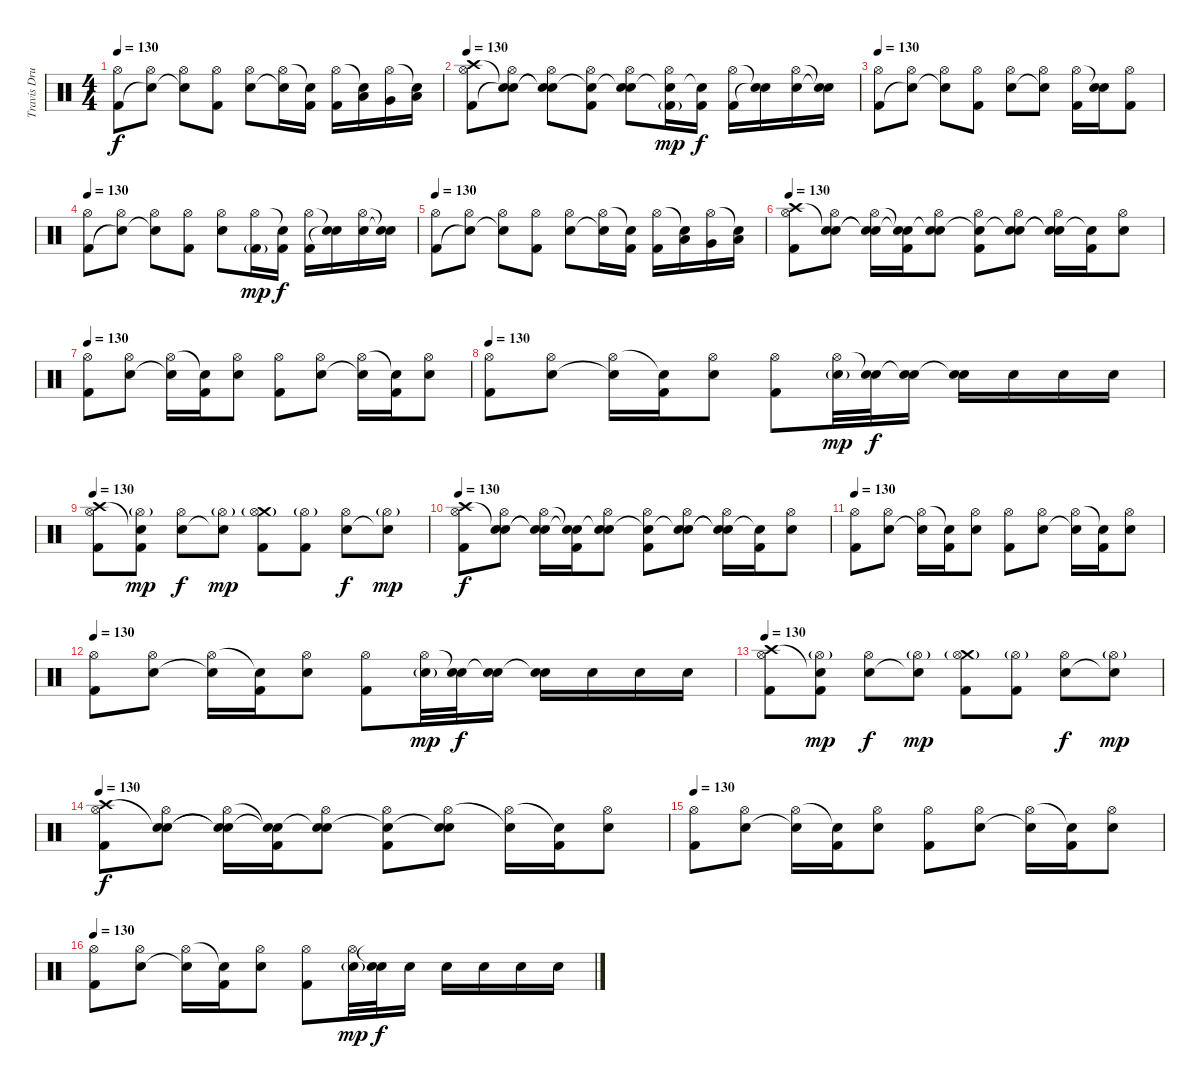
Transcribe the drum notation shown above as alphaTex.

\track ("Travis Drums" "Travis Dru") {instrument percussion}
\staff {score}
\articulation defaults
\ts (4 4)
\tempo 130
\clef neutral
\ks c
("Hi-Hat (open)" "Kick (hit) 2").8{dy f} ("Hi-Hat (open)" "Snare (hit)"{t}).8 ("Hi-Hat (open)" "Snare (hit)"{t}).8 ("Hi-Hat (open)" "Kick (hit) 2").8 ("Hi-Hat (open)" "Electric Snare (hit)").8 ("Hi-Hat (open)" "Snare (hit)"{t}).16 ("Snare (hit)"{t} "Kick (hit) 2").16 ("Hi-Hat (open)" "Kick (hit) 2").16 ("Snare (hit)"{t} "Low Tom (hit)").16 ("Hi-Hat (open)" "Very Low Tom (hit)").16 ("Snare (hit)"{t} "Low Floor Tom (hit)").16 |
\tempo 130
("Crash high (hit)" "Hi-Hat (open)" "Kick (hit) 2").8 ("Snare (hit)"{t} "Hi-Hat (open)" "Snare (hit)"{t}).8 ("Snare (hit)"{t} "Hi-Hat (open)" "Snare (hit)"{t}).8 ("Snare (hit)"{t} "Hi-Hat (open)" "Kick (hit) 2").8 ("Snare (hit)"{t} "Hi-Hat (open)" "Electric Snare (hit)").8 ("Snare (hit)"{t} "Hi-Hat (open)" "Kick (hit) 2"{g}).16{dy mp} ("Snare (hit)"{t} "Kick (hit) 2").16{dy f} ("Hi-Hat (open)" "Kick (hit) 2").16 ("Snare (hit)"{t} "Snare (hit)"{t}).16 ("Hi-Hat (open)" "Electric Snare (hit)").16 ("Snare (hit)"{t} "Snare (hit)"{t}).16 |
\tempo 130
("Hi-Hat (open)" "Kick (hit) 2").8 ("Hi-Hat (open)" "Snare (hit)"{t}).8 ("Hi-Hat (open)" "Snare (hit)"{t}).8 ("Hi-Hat (open)" "Kick (hit) 2").8 ("Hi-Hat (open)" "Electric Snare (hit)").8 ("Hi-Hat (open)" "Snare (hit)"{t}).8 ("Hi-Hat (open)" "Kick (hit) 2").16 ("Snare (hit)"{t} "Electric Snare (hit)").16 ("Hi-Hat (open)" "Kick (hit) 2").8 |
\tempo 130
("Hi-Hat (open)" "Kick (hit) 2").8 ("Hi-Hat (open)" "Snare (hit)"{t}).8 ("Hi-Hat (open)" "Snare (hit)"{t}).8 ("Hi-Hat (open)" "Kick (hit) 2").8 ("Hi-Hat (open)" "Electric Snare (hit)").8 ("Hi-Hat (open)" "Kick (hit) 2"{g}).16{dy mp} ("Snare (hit)"{t} "Kick (hit) 2").16{dy f} ("Hi-Hat (open)" "Kick (hit) 2").16 ("Snare (hit)"{t} "Snare (hit)"{t}).16 ("Hi-Hat (open)" "Electric Snare (hit)").16 ("Snare (hit)"{t} "Snare (hit)"{t}).16 |
\tempo 130
("Hi-Hat (open)" "Kick (hit) 2").8 ("Hi-Hat (open)" "Snare (hit)"{t}).8 ("Hi-Hat (open)" "Snare (hit)"{t}).8 ("Hi-Hat (open)" "Kick (hit) 2").8 ("Hi-Hat (open)" "Electric Snare (hit)").8 ("Hi-Hat (open)" "Snare (hit)"{t}).16 ("Snare (hit)"{t} "Kick (hit) 2").16 ("Hi-Hat (open)" "Kick (hit) 2").16 ("Snare (hit)"{t} "Low Tom (hit)").16 ("Hi-Hat (open)" "Very Low Tom (hit)").16 ("Snare (hit)"{t} "Low Floor Tom (hit)").16 |
\tempo 130
("Crash high (hit)" "Hi-Hat (open)" "Kick (hit) 2").8 ("Snare (hit)"{t} "Hi-Hat (open)" "Electric Snare (hit)").8 ("Snare (hit)"{t} "Hi-Hat (open)" "Snare (hit)"{t}).16 ("Snare (hit)"{t} "Snare (hit)"{t} "Kick (hit) 2").16 ("Snare (hit)"{t} "Hi-Hat (open)" "Electric Snare (hit)").8 ("Snare (hit)"{t} "Hi-Hat (open)" "Kick (hit) 2").8 ("Snare (hit)"{t} "Hi-Hat (open)" "Electric Snare (hit)").8 ("Snare (hit)"{t} "Hi-Hat (open)" "Snare (hit)"{t}).16 ("Snare (hit)"{t} "Kick (hit) 2").16 ("Hi-Hat (open)" "Electric Snare (hit)").8 |
\tempo 130
("Hi-Hat (open)" "Kick (hit) 2").8 ("Hi-Hat (open)" "Electric Snare (hit)").8 ("Hi-Hat (open)" "Snare (hit)"{t}).16 ("Snare (hit)"{t} "Kick (hit) 2").16 ("Hi-Hat (open)" "Electric Snare (hit)").8 ("Hi-Hat (open)" "Kick (hit) 2").8 ("Hi-Hat (open)" "Electric Snare (hit)").8 ("Hi-Hat (open)" "Snare (hit)"{t}).16 ("Snare (hit)"{t} "Kick (hit) 2").16 ("Hi-Hat (open)" "Electric Snare (hit)").8 |
\tempo 130
("Hi-Hat (open)" "Kick (hit) 2").8 ("Hi-Hat (open)" "Electric Snare (hit)").8 ("Hi-Hat (open)" "Snare (hit)"{t}).16 ("Snare (hit)"{t} "Kick (hit) 2").16 ("Hi-Hat (open)" "Electric Snare (hit)").8 ("Hi-Hat (open)" "Kick (hit) 2").8 ("Hi-Hat (open)" "Electric Snare (hit)"{g}).32{dy mp} ("Snare (hit)"{t} "Electric Snare (hit)").32{dy f} ("Snare (hit)"{t} "Electric Snare (hit)").16 ("Snare (hit)"{t} "Electric Snare (hit)").16 "Electric Snare (hit)".16 "Electric Snare (hit)".16 "Electric Snare (hit)".16 |
\tempo 130
("Crash high (hit)" "Hi-Hat (open)" "Kick (hit) 2").8 ("Snare (hit)"{t} "Hi-Hat (open)"{g} "Kick (hit) 2").8{dy mp} ("Hi-Hat (open)" "Electric Snare (hit)").8{dy f} ("Hi-Hat (open)"{g} "Snare (hit)"{t}).8{dy mp} ("Crash medium (hit)"{g} "Hi-Hat (open)" "Kick (hit) 2").8 ("Hi-Hat (open)"{g} "Kick (hit) 2").8 ("Hi-Hat (open)" "Electric Snare (hit)").8{dy f} ("Hi-Hat (open)"{g} "Snare (hit)"{t}).8{dy mp} |
\tempo 130
("Crash high (hit)" "Hi-Hat (open)" "Kick (hit) 2").8{dy f} ("Snare (hit)"{t} "Hi-Hat (open)" "Electric Snare (hit)").8 ("Snare (hit)"{t} "Hi-Hat (open)" "Snare (hit)"{t}).16 ("Snare (hit)"{t} "Snare (hit)"{t} "Kick (hit) 2").16 ("Snare (hit)"{t} "Hi-Hat (open)" "Electric Snare (hit)").8 ("Snare (hit)"{t} "Hi-Hat (open)" "Kick (hit) 2").8 ("Snare (hit)"{t} "Hi-Hat (open)" "Electric Snare (hit)").8 ("Snare (hit)"{t} "Hi-Hat (open)" "Snare (hit)"{t}).16 ("Snare (hit)"{t} "Kick (hit) 2").16 ("Hi-Hat (open)" "Electric Snare (hit)").8 |
\tempo 130
("Hi-Hat (open)" "Kick (hit) 2").8 ("Hi-Hat (open)" "Electric Snare (hit)").8 ("Hi-Hat (open)" "Snare (hit)"{t}).16 ("Snare (hit)"{t} "Kick (hit) 2").16 ("Hi-Hat (open)" "Electric Snare (hit)").8 ("Hi-Hat (open)" "Kick (hit) 2").8 ("Hi-Hat (open)" "Electric Snare (hit)").8 ("Hi-Hat (open)" "Snare (hit)"{t}).16 ("Snare (hit)"{t} "Kick (hit) 2").16 ("Hi-Hat (open)" "Electric Snare (hit)").8 |
\tempo 130
("Hi-Hat (open)" "Kick (hit) 2").8 ("Hi-Hat (open)" "Electric Snare (hit)").8 ("Hi-Hat (open)" "Snare (hit)"{t}).16 ("Snare (hit)"{t} "Kick (hit) 2").16 ("Hi-Hat (open)" "Electric Snare (hit)").8 ("Hi-Hat (open)" "Kick (hit) 2").8 ("Hi-Hat (open)" "Electric Snare (hit)"{g}).32{dy mp} ("Snare (hit)"{t} "Electric Snare (hit)").32{dy f} ("Snare (hit)"{t} "Electric Snare (hit)").16 ("Snare (hit)"{t} "Electric Snare (hit)").16 "Electric Snare (hit)".16 "Electric Snare (hit)".16 "Electric Snare (hit)".16 |
\tempo 130
("Crash high (hit)" "Hi-Hat (open)" "Kick (hit) 2").8 ("Snare (hit)"{t} "Hi-Hat (open)"{g} "Kick (hit) 2").8{dy mp} ("Hi-Hat (open)" "Electric Snare (hit)").8{dy f} ("Hi-Hat (open)"{g} "Snare (hit)"{t}).8{dy mp} ("Crash medium (hit)"{g} "Hi-Hat (open)" "Kick (hit) 2").8 ("Hi-Hat (open)"{g} "Kick (hit) 2").8 ("Hi-Hat (open)" "Electric Snare (hit)").8{dy f} ("Hi-Hat (open)"{g} "Snare (hit)"{t}).8{dy mp} |
\tempo 130
("Crash high (hit)" "Hi-Hat (open)" "Kick (hit) 2").8{dy f} ("Snare (hit)"{t} "Hi-Hat (open)" "Electric Snare (hit)").8 ("Snare (hit)"{t} "Hi-Hat (open)" "Snare (hit)"{t}).16 ("Snare (hit)"{t} "Snare (hit)"{t} "Kick (hit) 2").16 ("Snare (hit)"{t} "Hi-Hat (open)" "Electric Snare (hit)").8 ("Snare (hit)"{t} "Hi-Hat (open)" "Kick (hit) 2").8 ("Snare (hit)"{t} "Hi-Hat (open)" "Electric Snare (hit)").8 ("Hi-Hat (open)" "Snare (hit)"{t}).16 ("Snare (hit)"{t} "Kick (hit) 2").16 ("Hi-Hat (open)" "Electric Snare (hit)").8 |
\tempo 130
("Hi-Hat (open)" "Kick (hit) 2").8 ("Hi-Hat (open)" "Electric Snare (hit)").8 ("Hi-Hat (open)" "Snare (hit)"{t}).16 ("Snare (hit)"{t} "Kick (hit) 2").16 ("Hi-Hat (open)" "Electric Snare (hit)").8 ("Hi-Hat (open)" "Kick (hit) 2").8 ("Hi-Hat (open)" "Electric Snare (hit)").8 ("Hi-Hat (open)" "Snare (hit)"{t}).16 ("Snare (hit)"{t} "Kick (hit) 2").16 ("Hi-Hat (open)" "Electric Snare (hit)").8 |
\tempo 130
("Hi-Hat (open)" "Kick (hit) 2").8 ("Hi-Hat (open)" "Electric Snare (hit)").8 ("Hi-Hat (open)" "Snare (hit)"{t}).16 ("Snare (hit)"{t} "Kick (hit) 2").16 ("Hi-Hat (open)" "Electric Snare (hit)").8 ("Hi-Hat (open)" "Kick (hit) 2").8 ("Hi-Hat (open)" "Electric Snare (hit)"{g}).32{dy mp} ("Snare (hit)"{t} "Electric Snare (hit)").32{dy f} "Electric Snare (hit)".16 "Electric Snare (hit)".16 "Electric Snare (hit)".16 "Electric Snare (hit)".16 "Electric Snare (hit)".16
